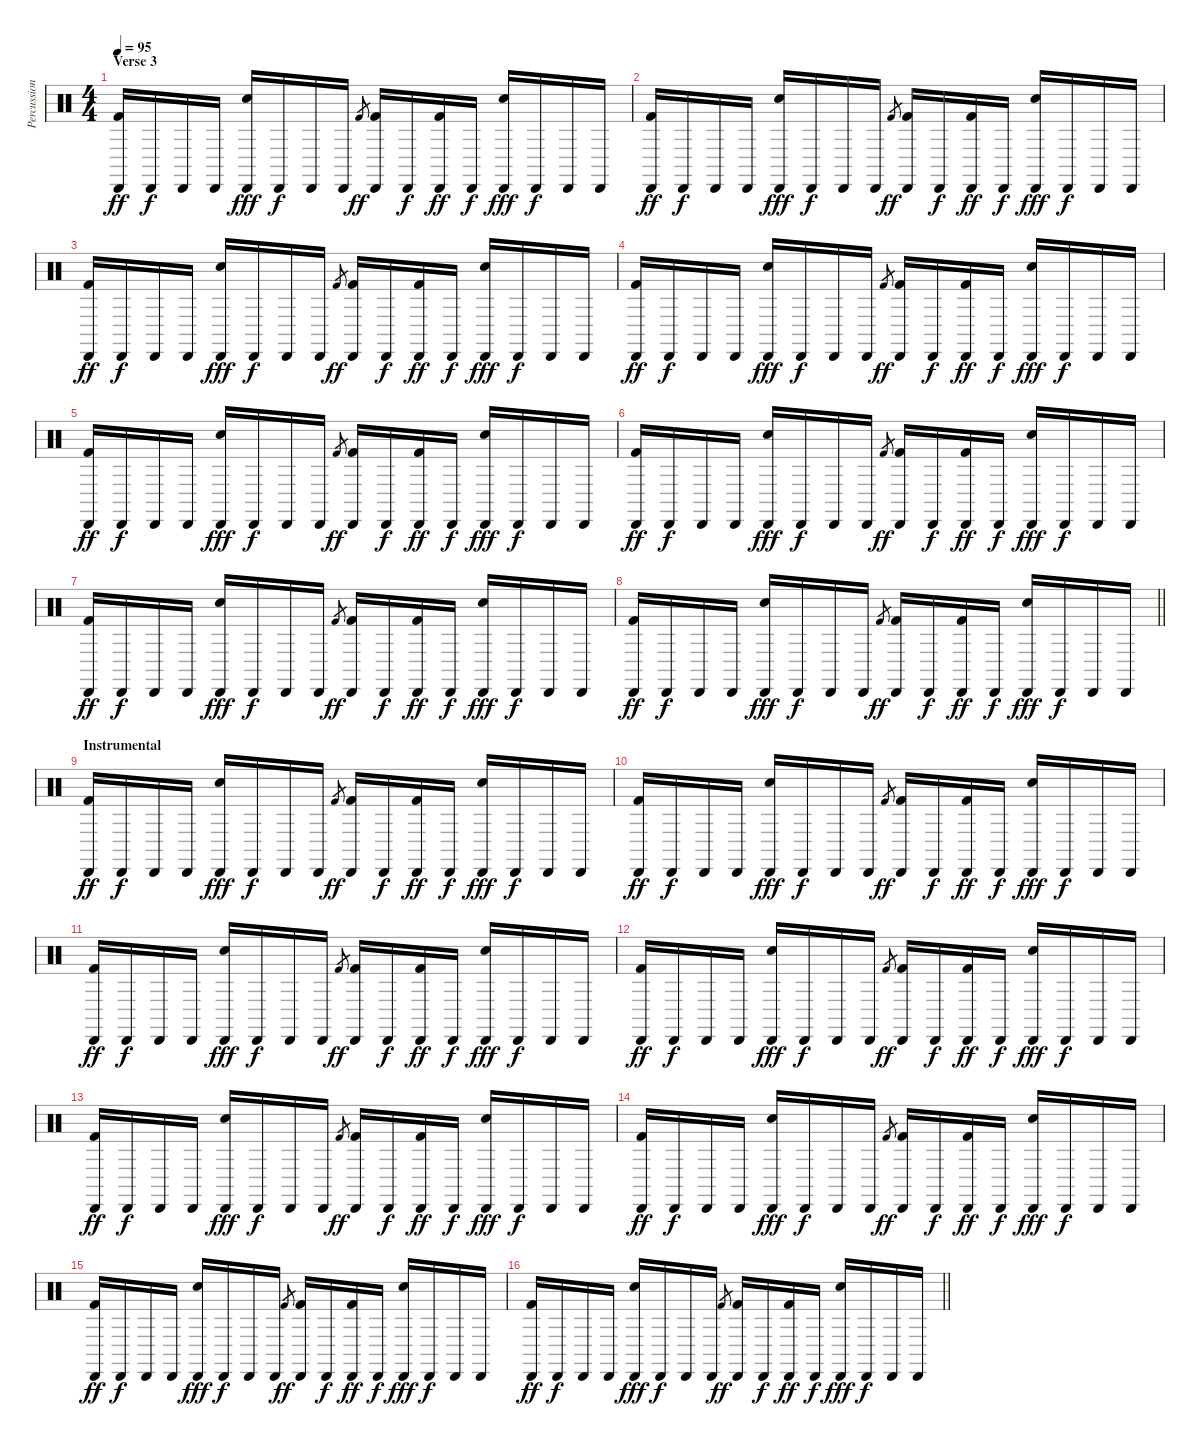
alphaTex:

\track ("Percussion" "Percussion") {instrument percussion}
\staff {score}
\articulation defaults
\ts (4 4)
\section ("" "Verse 3")
\tempo 95
\clef neutral
\ks c
("Cabasa (hit)" "Kick (hit) 2").16{dy ff} "Cabasa (hit)".16{dy f} "Cabasa (hit)".16 "Cabasa (hit)".16 ("Cabasa (hit)" "Electric Snare (hit)").16{dy fff} "Cabasa (hit)".16{dy f} "Cabasa (hit)".16 "Cabasa (hit)".16 "Kick (hit) 2".8{gr dy ff} ("Cabasa (hit)" "Kick (hit) 2").16 "Cabasa (hit)".16{dy f} ("Cabasa (hit)" "Kick (hit) 2").16{dy ff} "Cabasa (hit)".16{dy f} ("Cabasa (hit)" "Electric Snare (hit)").16{dy fff} "Cabasa (hit)".16{dy f} "Cabasa (hit)".16 "Cabasa (hit)".16 |
("Cabasa (hit)" "Kick (hit) 2").16{dy ff} "Cabasa (hit)".16{dy f} "Cabasa (hit)".16 "Cabasa (hit)".16 ("Cabasa (hit)" "Electric Snare (hit)").16{dy fff} "Cabasa (hit)".16{dy f} "Cabasa (hit)".16 "Cabasa (hit)".16 "Kick (hit) 2".8{gr dy ff} ("Cabasa (hit)" "Kick (hit) 2").16 "Cabasa (hit)".16{dy f} ("Cabasa (hit)" "Kick (hit) 2").16{dy ff} "Cabasa (hit)".16{dy f} ("Cabasa (hit)" "Electric Snare (hit)").16{dy fff} "Cabasa (hit)".16{dy f} "Cabasa (hit)".16 "Cabasa (hit)".16 |
("Cabasa (hit)" "Kick (hit) 2").16{dy ff} "Cabasa (hit)".16{dy f} "Cabasa (hit)".16 "Cabasa (hit)".16 ("Cabasa (hit)" "Electric Snare (hit)").16{dy fff} "Cabasa (hit)".16{dy f} "Cabasa (hit)".16 "Cabasa (hit)".16 "Kick (hit) 2".8{gr dy ff} ("Cabasa (hit)" "Kick (hit) 2").16 "Cabasa (hit)".16{dy f} ("Cabasa (hit)" "Kick (hit) 2").16{dy ff} "Cabasa (hit)".16{dy f} ("Cabasa (hit)" "Electric Snare (hit)").16{dy fff} "Cabasa (hit)".16{dy f} "Cabasa (hit)".16 "Cabasa (hit)".16 |
("Cabasa (hit)" "Kick (hit) 2").16{dy ff} "Cabasa (hit)".16{dy f} "Cabasa (hit)".16 "Cabasa (hit)".16 ("Cabasa (hit)" "Electric Snare (hit)").16{dy fff} "Cabasa (hit)".16{dy f} "Cabasa (hit)".16 "Cabasa (hit)".16 "Kick (hit) 2".8{gr dy ff} ("Cabasa (hit)" "Kick (hit) 2").16 "Cabasa (hit)".16{dy f} ("Cabasa (hit)" "Kick (hit) 2").16{dy ff} "Cabasa (hit)".16{dy f} ("Cabasa (hit)" "Electric Snare (hit)").16{dy fff} "Cabasa (hit)".16{dy f} "Cabasa (hit)".16 "Cabasa (hit)".16 |
("Cabasa (hit)" "Kick (hit) 2").16{dy ff} "Cabasa (hit)".16{dy f} "Cabasa (hit)".16 "Cabasa (hit)".16 ("Cabasa (hit)" "Electric Snare (hit)").16{dy fff} "Cabasa (hit)".16{dy f} "Cabasa (hit)".16 "Cabasa (hit)".16 "Kick (hit) 2".8{gr dy ff} ("Cabasa (hit)" "Kick (hit) 2").16 "Cabasa (hit)".16{dy f} ("Cabasa (hit)" "Kick (hit) 2").16{dy ff} "Cabasa (hit)".16{dy f} ("Cabasa (hit)" "Electric Snare (hit)").16{dy fff} "Cabasa (hit)".16{dy f} "Cabasa (hit)".16 "Cabasa (hit)".16 |
("Cabasa (hit)" "Kick (hit) 2").16{dy ff} "Cabasa (hit)".16{dy f} "Cabasa (hit)".16 "Cabasa (hit)".16 ("Cabasa (hit)" "Electric Snare (hit)").16{dy fff} "Cabasa (hit)".16{dy f} "Cabasa (hit)".16 "Cabasa (hit)".16 "Kick (hit) 2".8{gr dy ff} ("Cabasa (hit)" "Kick (hit) 2").16 "Cabasa (hit)".16{dy f} ("Cabasa (hit)" "Kick (hit) 2").16{dy ff} "Cabasa (hit)".16{dy f} ("Cabasa (hit)" "Electric Snare (hit)").16{dy fff} "Cabasa (hit)".16{dy f} "Cabasa (hit)".16 "Cabasa (hit)".16 |
("Cabasa (hit)" "Kick (hit) 2").16{dy ff} "Cabasa (hit)".16{dy f} "Cabasa (hit)".16 "Cabasa (hit)".16 ("Cabasa (hit)" "Electric Snare (hit)").16{dy fff} "Cabasa (hit)".16{dy f} "Cabasa (hit)".16 "Cabasa (hit)".16 "Kick (hit) 2".8{gr dy ff} ("Cabasa (hit)" "Kick (hit) 2").16 "Cabasa (hit)".16{dy f} ("Cabasa (hit)" "Kick (hit) 2").16{dy ff} "Cabasa (hit)".16{dy f} ("Cabasa (hit)" "Electric Snare (hit)").16{dy fff} "Cabasa (hit)".16{dy f} "Cabasa (hit)".16 "Cabasa (hit)".16 |
\barLineRight lightlight
("Cabasa (hit)" "Kick (hit) 2").16{dy ff} "Cabasa (hit)".16{dy f} "Cabasa (hit)".16 "Cabasa (hit)".16 ("Cabasa (hit)" "Electric Snare (hit)").16{dy fff} "Cabasa (hit)".16{dy f} "Cabasa (hit)".16 "Cabasa (hit)".16 "Kick (hit) 2".8{gr dy ff} ("Cabasa (hit)" "Kick (hit) 2").16 "Cabasa (hit)".16{dy f} ("Cabasa (hit)" "Kick (hit) 2").16{dy ff} "Cabasa (hit)".16{dy f} ("Cabasa (hit)" "Electric Snare (hit)").16{dy fff} "Cabasa (hit)".16{dy f} "Cabasa (hit)".16 "Cabasa (hit)".16 |
\section ("" "Instrumental")
("Cabasa (hit)" "Kick (hit) 2").16{dy ff} "Cabasa (hit)".16{dy f} "Cabasa (hit)".16 "Cabasa (hit)".16 ("Cabasa (hit)" "Electric Snare (hit)").16{dy fff} "Cabasa (hit)".16{dy f} "Cabasa (hit)".16 "Cabasa (hit)".16 "Kick (hit) 2".8{gr dy ff} ("Cabasa (hit)" "Kick (hit) 2").16 "Cabasa (hit)".16{dy f} ("Cabasa (hit)" "Kick (hit) 2").16{dy ff} "Cabasa (hit)".16{dy f} ("Cabasa (hit)" "Electric Snare (hit)").16{dy fff} "Cabasa (hit)".16{dy f} "Cabasa (hit)".16 "Cabasa (hit)".16 |
("Cabasa (hit)" "Kick (hit) 2").16{dy ff} "Cabasa (hit)".16{dy f} "Cabasa (hit)".16 "Cabasa (hit)".16 ("Cabasa (hit)" "Electric Snare (hit)").16{dy fff} "Cabasa (hit)".16{dy f} "Cabasa (hit)".16 "Cabasa (hit)".16 "Kick (hit) 2".8{gr dy ff} ("Cabasa (hit)" "Kick (hit) 2").16 "Cabasa (hit)".16{dy f} ("Cabasa (hit)" "Kick (hit) 2").16{dy ff} "Cabasa (hit)".16{dy f} ("Cabasa (hit)" "Electric Snare (hit)").16{dy fff} "Cabasa (hit)".16{dy f} "Cabasa (hit)".16 "Cabasa (hit)".16 |
("Cabasa (hit)" "Kick (hit) 2").16{dy ff} "Cabasa (hit)".16{dy f} "Cabasa (hit)".16 "Cabasa (hit)".16 ("Cabasa (hit)" "Electric Snare (hit)").16{dy fff} "Cabasa (hit)".16{dy f} "Cabasa (hit)".16 "Cabasa (hit)".16 "Kick (hit) 2".8{gr dy ff} ("Cabasa (hit)" "Kick (hit) 2").16 "Cabasa (hit)".16{dy f} ("Cabasa (hit)" "Kick (hit) 2").16{dy ff} "Cabasa (hit)".16{dy f} ("Cabasa (hit)" "Electric Snare (hit)").16{dy fff} "Cabasa (hit)".16{dy f} "Cabasa (hit)".16 "Cabasa (hit)".16 |
("Cabasa (hit)" "Kick (hit) 2").16{dy ff} "Cabasa (hit)".16{dy f} "Cabasa (hit)".16 "Cabasa (hit)".16 ("Cabasa (hit)" "Electric Snare (hit)").16{dy fff} "Cabasa (hit)".16{dy f} "Cabasa (hit)".16 "Cabasa (hit)".16 "Kick (hit) 2".8{gr dy ff} ("Cabasa (hit)" "Kick (hit) 2").16 "Cabasa (hit)".16{dy f} ("Cabasa (hit)" "Kick (hit) 2").16{dy ff} "Cabasa (hit)".16{dy f} ("Cabasa (hit)" "Electric Snare (hit)").16{dy fff} "Cabasa (hit)".16{dy f} "Cabasa (hit)".16 "Cabasa (hit)".16 |
("Cabasa (hit)" "Kick (hit) 2").16{dy ff} "Cabasa (hit)".16{dy f} "Cabasa (hit)".16 "Cabasa (hit)".16 ("Cabasa (hit)" "Electric Snare (hit)").16{dy fff} "Cabasa (hit)".16{dy f} "Cabasa (hit)".16 "Cabasa (hit)".16 "Kick (hit) 2".8{gr dy ff} ("Cabasa (hit)" "Kick (hit) 2").16 "Cabasa (hit)".16{dy f} ("Cabasa (hit)" "Kick (hit) 2").16{dy ff} "Cabasa (hit)".16{dy f} ("Cabasa (hit)" "Electric Snare (hit)").16{dy fff} "Cabasa (hit)".16{dy f} "Cabasa (hit)".16 "Cabasa (hit)".16 |
("Cabasa (hit)" "Kick (hit) 2").16{dy ff} "Cabasa (hit)".16{dy f} "Cabasa (hit)".16 "Cabasa (hit)".16 ("Cabasa (hit)" "Electric Snare (hit)").16{dy fff} "Cabasa (hit)".16{dy f} "Cabasa (hit)".16 "Cabasa (hit)".16 "Kick (hit) 2".8{gr dy ff} ("Cabasa (hit)" "Kick (hit) 2").16 "Cabasa (hit)".16{dy f} ("Cabasa (hit)" "Kick (hit) 2").16{dy ff} "Cabasa (hit)".16{dy f} ("Cabasa (hit)" "Electric Snare (hit)").16{dy fff} "Cabasa (hit)".16{dy f} "Cabasa (hit)".16 "Cabasa (hit)".16 |
("Cabasa (hit)" "Kick (hit) 2").16{dy ff} "Cabasa (hit)".16{dy f} "Cabasa (hit)".16 "Cabasa (hit)".16 ("Cabasa (hit)" "Electric Snare (hit)").16{dy fff} "Cabasa (hit)".16{dy f} "Cabasa (hit)".16 "Cabasa (hit)".16 "Kick (hit) 2".8{gr dy ff} ("Cabasa (hit)" "Kick (hit) 2").16 "Cabasa (hit)".16{dy f} ("Cabasa (hit)" "Kick (hit) 2").16{dy ff} "Cabasa (hit)".16{dy f} ("Cabasa (hit)" "Electric Snare (hit)").16{dy fff} "Cabasa (hit)".16{dy f} "Cabasa (hit)".16 "Cabasa (hit)".16 |
\barLineRight lightlight
("Cabasa (hit)" "Kick (hit) 2").16{dy ff} "Cabasa (hit)".16{dy f} "Cabasa (hit)".16 "Cabasa (hit)".16 ("Cabasa (hit)" "Electric Snare (hit)").16{dy fff} "Cabasa (hit)".16{dy f} "Cabasa (hit)".16 "Cabasa (hit)".16 "Kick (hit) 2".8{gr dy ff} ("Cabasa (hit)" "Kick (hit) 2").16 "Cabasa (hit)".16{dy f} ("Cabasa (hit)" "Kick (hit) 2").16{dy ff} "Cabasa (hit)".16{dy f} ("Cabasa (hit)" "Electric Snare (hit)").16{dy fff} "Cabasa (hit)".16{dy f} "Cabasa (hit)".16 "Cabasa (hit)".16
